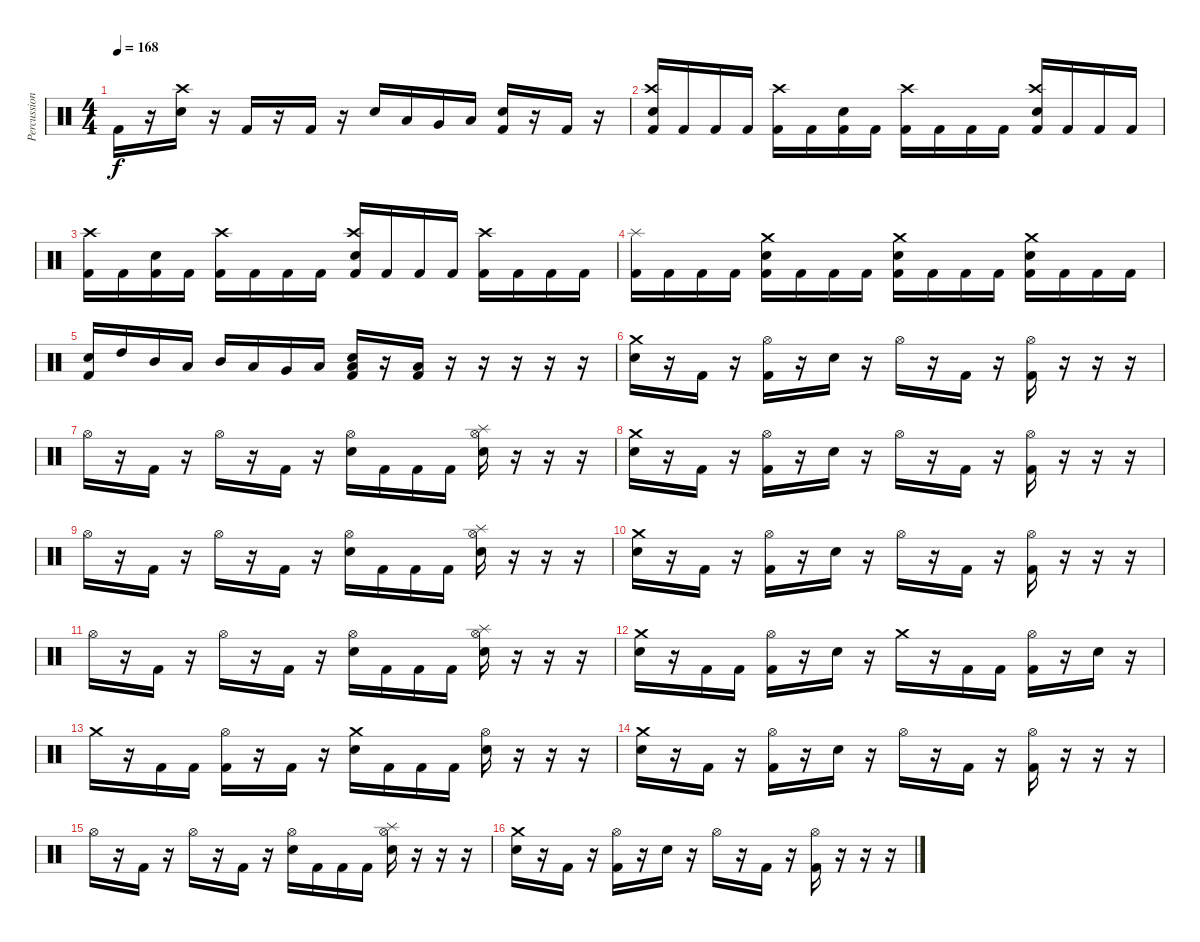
\track ("Percussion" "Percussion") {instrument percussion}
\staff {score}
\articulation defaults
\ts (4 4)
\tempo 168
\clef neutral
\ks c "Kick (hit) 2".16{dy f}
r.16 ("Crash high (hit)" "Electric Snare (hit)").16 r.16 "Kick (hit) 2".16 r.16 "Kick (hit) 2".16 r.16 "Electric Snare (hit)".16 "Low Tom (hit)".16 "Very Low Tom (hit)".16 "Low Floor Tom (hit)".16 ("Electric Snare (hit)" "Kick (hit) 2").16 r.16 "Kick (hit) 2".16 r.16 |
("Crash high (hit)" "Electric Snare (hit)" "Kick (hit) 2").16 "Kick (hit) 2".16 "Kick (hit) 2".16 "Kick (hit) 2".16 ("Crash high (hit)" "Kick (hit) 2").16 "Kick (hit) 2".16 ("Electric Snare (hit)" "Kick (hit) 2").16 "Kick (hit) 2".16 ("Crash high (hit)" "Kick (hit) 2").16 "Kick (hit) 2".16 "Kick (hit) 2".16 "Kick (hit) 2".16 ("Crash high (hit)" "Electric Snare (hit)" "Kick (hit) 2").16 "Kick (hit) 2".16 "Kick (hit) 2".16 "Kick (hit) 2".16 |
("Crash high (hit)" "Kick (hit) 2").16 "Kick (hit) 2".16 ("Electric Snare (hit)" "Kick (hit) 2").16 "Kick (hit) 2".16 ("Crash high (hit)" "Kick (hit) 2").16 "Kick (hit) 2".16 "Kick (hit) 2".16 "Kick (hit) 2".16 ("Crash high (hit)" "Electric Snare (hit)" "Kick (hit) 2").16 "Kick (hit) 2".16 "Kick (hit) 2".16 "Kick (hit) 2".16 ("Crash high (hit)" "Kick (hit) 2").16 "Kick (hit) 2".16 "Kick (hit) 2".16 "Kick (hit) 2".16 |
("Splash (hit)" "Kick (hit) 2").16 "Kick (hit) 2".16 "Kick (hit) 2".16 "Kick (hit) 2".16 ("Crash medium (hit)" "Electric Snare (hit)" "Kick (hit) 2").16 "Kick (hit) 2".16 "Kick (hit) 2".16 "Kick (hit) 2".16 ("Crash medium (hit)" "Electric Snare (hit)" "Kick (hit) 2").16 "Kick (hit) 2".16 "Kick (hit) 2".16 "Kick (hit) 2".16 ("Crash medium (hit)" "Electric Snare (hit)" "Kick (hit) 2").16 "Kick (hit) 2".16 "Kick (hit) 2".16 "Kick (hit) 2".16 |
("Electric Snare (hit)" "Kick (hit) 2").16 "High Tom (hit)".16 "Mid Tom (hit)".16 "Low Tom (hit)".16 "Mid Tom (hit)".16 "Low Tom (hit)".16 "Very Low Tom (hit)".16 "Low Floor Tom (hit)".16 ("Electric Snare (hit)" "Low Floor Tom (hit)" "Kick (hit) 2").16 r.16 ("Low Floor Tom (hit)" "Kick (hit) 2").16 r.16 r.16 r.16 r.16 r.16 |
("Crash medium (hit)" "Electric Snare (hit)").16 r.16 "Kick (hit) 2".16 r.16 ("Hi-Hat (open)" "Kick (hit) 2").16 r.16 "Electric Snare (hit)".16 r.16 "Hi-Hat (open)".16 r.16 "Kick (hit) 2".16 r.16 ("Hi-Hat (open)" "Kick (hit) 2").16 r.16 r.16 r.16 |
"Hi-Hat (open)".16 r.16 "Kick (hit) 2".16 r.16 "Hi-Hat (open)".16 r.16 "Kick (hit) 2".16 r.16 ("Hi-Hat (open)" "Electric Snare (hit)").16 "Kick (hit) 2".16 "Kick (hit) 2".16 "Kick (hit) 2".16 ("Hi-Hat (open)" "Splash (hit)" "Electric Snare (hit)").16 r.16 r.16 r.16 |
("Crash medium (hit)" "Electric Snare (hit)").16 r.16 "Kick (hit) 2".16 r.16 ("Hi-Hat (open)" "Kick (hit) 2").16 r.16 "Electric Snare (hit)".16 r.16 "Hi-Hat (open)".16 r.16 "Kick (hit) 2".16 r.16 ("Hi-Hat (open)" "Kick (hit) 2").16 r.16 r.16 r.16 |
"Hi-Hat (open)".16 r.16 "Kick (hit) 2".16 r.16 "Hi-Hat (open)".16 r.16 "Kick (hit) 2".16 r.16 ("Hi-Hat (open)" "Electric Snare (hit)").16 "Kick (hit) 2".16 "Kick (hit) 2".16 "Kick (hit) 2".16 ("Hi-Hat (open)" "Splash (hit)" "Electric Snare (hit)").16 r.16 r.16 r.16 |
("Crash medium (hit)" "Electric Snare (hit)").16 r.16 "Kick (hit) 2".16 r.16 ("Hi-Hat (open)" "Kick (hit) 2").16 r.16 "Electric Snare (hit)".16 r.16 "Hi-Hat (open)".16 r.16 "Kick (hit) 2".16 r.16 ("Hi-Hat (open)" "Kick (hit) 2").16 r.16 r.16 r.16 |
"Hi-Hat (open)".16 r.16 "Kick (hit) 2".16 r.16 "Hi-Hat (open)".16 r.16 "Kick (hit) 2".16 r.16 ("Hi-Hat (open)" "Electric Snare (hit)").16 "Kick (hit) 2".16 "Kick (hit) 2".16 "Kick (hit) 2".16 ("Hi-Hat (open)" "Splash (hit)" "Electric Snare (hit)").16 r.16 r.16 r.16 |
("Crash medium (hit)" "Electric Snare (hit)").16 r.16 "Kick (hit) 2".16 "Kick (hit) 2".16 ("Hi-Hat (open)" "Kick (hit) 2").16 r.16 "Electric Snare (hit)".16 r.16 "Crash medium (hit)".16 r.16 "Kick (hit) 2".16 "Kick (hit) 2".16 ("Hi-Hat (open)" "Kick (hit) 2").16 r.16 "Electric Snare (hit)".16 r.16 |
"Crash medium (hit)".16 r.16 "Kick (hit) 2".16 "Kick (hit) 2".16 ("Hi-Hat (open)" "Kick (hit) 2").16 r.16 "Kick (hit) 2".16 r.16 ("Crash medium (hit)" "Electric Snare (hit)").16 "Kick (hit) 2".16 "Kick (hit) 2".16 "Kick (hit) 2".16 ("Hi-Hat (open)" "Electric Snare (hit)").16 r.16 r.16 r.16 |
("Crash medium (hit)" "Electric Snare (hit)").16 r.16 "Kick (hit) 2".16 r.16 ("Hi-Hat (open)" "Kick (hit) 2").16 r.16 "Electric Snare (hit)".16 r.16 "Hi-Hat (open)".16 r.16 "Kick (hit) 2".16 r.16 ("Hi-Hat (open)" "Kick (hit) 2").16 r.16 r.16 r.16 |
"Hi-Hat (open)".16 r.16 "Kick (hit) 2".16 r.16 "Hi-Hat (open)".16 r.16 "Kick (hit) 2".16 r.16 ("Hi-Hat (open)" "Electric Snare (hit)").16 "Kick (hit) 2".16 "Kick (hit) 2".16 "Kick (hit) 2".16 ("Hi-Hat (open)" "Splash (hit)" "Electric Snare (hit)").16 r.16 r.16 r.16 |
("Crash medium (hit)" "Electric Snare (hit)").16 r.16 "Kick (hit) 2".16 r.16 ("Hi-Hat (open)" "Kick (hit) 2").16 r.16 "Electric Snare (hit)".16 r.16 "Hi-Hat (open)".16 r.16 "Kick (hit) 2".16 r.16 ("Hi-Hat (open)" "Kick (hit) 2").16 r.16 r.16 r.16
